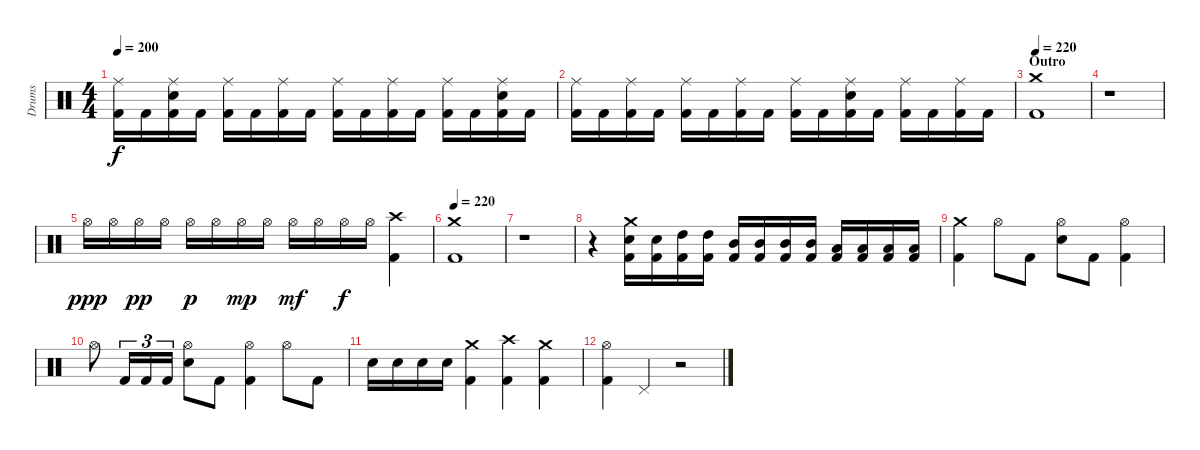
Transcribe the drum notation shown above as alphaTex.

\track ("Drums" "Drums") {instrument percussion}
\staff {score}
\articulation defaults
\ts (4 4)
\tempo 200
\clef neutral
\ks c
("Ride (middle)" "Kick (hit) 2").16{dy f} "Kick (hit) 2".16 ("Ride (middle)" "Electric Snare (hit)" "Kick (hit) 2").16 "Kick (hit) 2".16 ("Ride (middle)" "Kick (hit) 2").16 "Kick (hit) 2".16 ("Ride (middle)" "Kick (hit) 2").16 "Kick (hit) 2".16 ("Ride (middle)" "Kick (hit) 2").16 "Kick (hit) 2".16 ("Ride (middle)" "Kick (hit) 2").16 "Kick (hit) 2".16 ("Ride (middle)" "Kick (hit) 2").16 "Kick (hit) 2".16 ("Ride (middle)" "Electric Snare (hit)" "Kick (hit) 2").16 "Kick (hit) 2".16 |
("Ride (middle)" "Kick (hit) 2").16 "Kick (hit) 2".16 ("Ride (middle)" "Kick (hit) 2").16 "Kick (hit) 2".16 ("Ride (middle)" "Kick (hit) 2").16 "Kick (hit) 2".16 ("Ride (middle)" "Kick (hit) 2").16 "Kick (hit) 2".16 ("Ride (middle)" "Kick (hit) 2").16 "Kick (hit) 2".16 ("Ride (middle)" "Electric Snare (hit)" "Kick (hit) 2").16 "Kick (hit) 2".16 ("Ride (middle)" "Kick (hit) 2").16 "Kick (hit) 2".16 ("Ride (middle)" "Kick (hit) 2").16 "Kick (hit) 2".16 |
\section ("" "Outro")
\tempo 220
("Crash medium (hit)" "Kick (hit) 2").1 |
r.1 |
"Hi-Hat (open)".16{dy ppp} "Hi-Hat (open)".16 "Hi-Hat (open)".16{dy pp} "Hi-Hat (open)".16 "Hi-Hat (open)".16{dy p} "Hi-Hat (open)".16 "Hi-Hat (open)".16{dy mp} "Hi-Hat (open)".16 "Hi-Hat (open)".16{dy mf} "Hi-Hat (open)".16 "Hi-Hat (open)".16{dy f} "Hi-Hat (open)".16 ("Crash high (hit)" "Kick (hit) 2").4 |
\tempo 220
("Crash medium (hit)" "Kick (hit) 2").1 |
r.1 |
r.4 ("Crash medium (hit)" "Electric Snare (hit)" "Kick (hit) 2").16 ("Electric Snare (hit)" "Kick (hit) 2").16 ("High Tom (hit)" "Kick (hit) 2").16 ("High Tom (hit)" "Kick (hit) 2").16 ("Mid Tom (hit)" "Kick (hit) 2").16 ("Mid Tom (hit)" "Kick (hit) 2").16 ("Mid Tom (hit)" "Kick (hit) 2").16 ("Mid Tom (hit)" "Kick (hit) 2").16 ("Low Tom (hit)" "Kick (hit) 2").16 ("Low Tom (hit)" "Kick (hit) 2").16 ("Low Tom (hit)" "Kick (hit) 2").16 ("Low Tom (hit)" "Kick (hit) 2").16 |
("Crash medium (hit)" "Kick (hit) 2").4 "Hi-Hat (open)".8 "Kick (hit) 2".8 ("Hi-Hat (open)" "Electric Snare (hit)").8 "Kick (hit) 2".8 ("Hi-Hat (open)" "Kick (hit) 2").4 |
"Hi-Hat (open)".8 "Kick (hit) 2".16{tu (3 2)} "Kick (hit) 2".16{tu (3 2)} "Kick (hit) 2".16{tu (3 2)} ("Hi-Hat (open)" "Electric Snare (hit)").8 "Kick (hit) 2".8 ("Hi-Hat (open)" "Kick (hit) 2").4 "Hi-Hat (open)".8 "Kick (hit) 2".8 |
"Electric Snare (hit)".16 "Electric Snare (hit)".16 "Electric Snare (hit)".16 "Electric Snare (hit)".16 ("Crash medium (hit)" "Kick (hit) 2").4 ("Crash high (hit)" "Kick (hit) 2").4 ("Crash medium (hit)" "Kick (hit) 2").4 |
("Hi-Hat (open)" "Kick (hit) 2").4 "Pedal Hi-Hat (hit)".4 r.2
